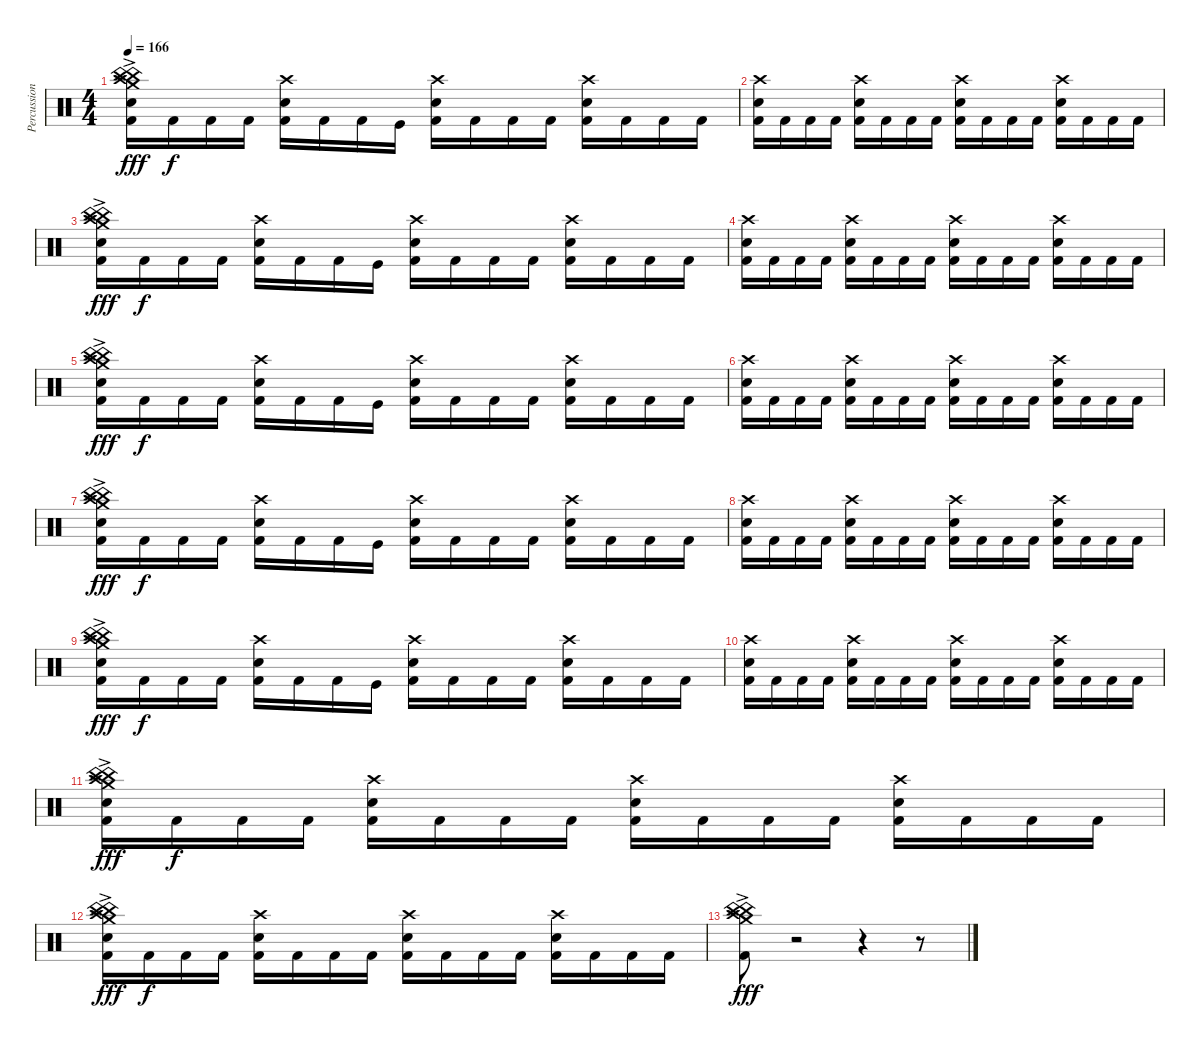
\track ("Percussion" "Percussion") {instrument percussion}
\staff {score}
\articulation defaults
\ts (4 4)
\tempo 166
\clef neutral
\ks c
("Crash high (hit)" "China (hit)"{ac} "Electric Snare (hit)" "China (hit)"{ac} "Crash medium (hit)" "Kick (hit) 2").16{dy fff} "Kick (hit) 2".16{dy f} "Kick (hit) 2".16 "Kick (hit) 2".16 ("Crash high (hit)" "Electric Snare (hit)" "Kick (hit) 2").16 "Kick (hit) 2".16 "Kick (hit) 2".16 "Kick (hit)".16 ("Crash high (hit)" "Electric Snare (hit)" "Kick (hit) 2").16 "Kick (hit) 2".16 "Kick (hit) 2".16 "Kick (hit) 2".16 ("Crash high (hit)" "Electric Snare (hit)" "Kick (hit) 2").16 "Kick (hit) 2".16 "Kick (hit) 2".16 "Kick (hit) 2".16 |
("Crash high (hit)" "Electric Snare (hit)" "Kick (hit) 2").16 "Kick (hit) 2".16 "Kick (hit) 2".16 "Kick (hit) 2".16 ("Crash high (hit)" "Electric Snare (hit)" "Kick (hit) 2").16 "Kick (hit) 2".16 "Kick (hit) 2".16 "Kick (hit) 2".16 ("Crash high (hit)" "Electric Snare (hit)" "Kick (hit) 2").16 "Kick (hit) 2".16 "Kick (hit) 2".16 "Kick (hit) 2".16 ("Crash high (hit)" "Electric Snare (hit)" "Kick (hit) 2").16 "Kick (hit) 2".16 "Kick (hit) 2".16 "Kick (hit) 2".16 |
("Crash high (hit)" "China (hit)"{ac} "Electric Snare (hit)" "China (hit)"{ac} "Crash medium (hit)" "Kick (hit) 2").16{dy fff} "Kick (hit) 2".16{dy f} "Kick (hit) 2".16 "Kick (hit) 2".16 ("Crash high (hit)" "Electric Snare (hit)" "Kick (hit) 2").16 "Kick (hit) 2".16 "Kick (hit) 2".16 "Kick (hit)".16 ("Crash high (hit)" "Electric Snare (hit)" "Kick (hit) 2").16 "Kick (hit) 2".16 "Kick (hit) 2".16 "Kick (hit) 2".16 ("Crash high (hit)" "Electric Snare (hit)" "Kick (hit) 2").16 "Kick (hit) 2".16 "Kick (hit) 2".16 "Kick (hit) 2".16 |
("Crash high (hit)" "Electric Snare (hit)" "Kick (hit) 2").16 "Kick (hit) 2".16 "Kick (hit) 2".16 "Kick (hit) 2".16 ("Crash high (hit)" "Electric Snare (hit)" "Kick (hit) 2").16 "Kick (hit) 2".16 "Kick (hit) 2".16 "Kick (hit) 2".16 ("Crash high (hit)" "Electric Snare (hit)" "Kick (hit) 2").16 "Kick (hit) 2".16 "Kick (hit) 2".16 "Kick (hit) 2".16 ("Crash high (hit)" "Electric Snare (hit)" "Kick (hit) 2").16 "Kick (hit) 2".16 "Kick (hit) 2".16 "Kick (hit) 2".16 |
("Crash high (hit)" "China (hit)"{ac} "Electric Snare (hit)" "China (hit)"{ac} "Crash medium (hit)" "Kick (hit) 2").16{dy fff} "Kick (hit) 2".16{dy f} "Kick (hit) 2".16 "Kick (hit) 2".16 ("Crash high (hit)" "Electric Snare (hit)" "Kick (hit) 2").16 "Kick (hit) 2".16 "Kick (hit) 2".16 "Kick (hit)".16 ("Crash high (hit)" "Electric Snare (hit)" "Kick (hit) 2").16 "Kick (hit) 2".16 "Kick (hit) 2".16 "Kick (hit) 2".16 ("Crash high (hit)" "Electric Snare (hit)" "Kick (hit) 2").16 "Kick (hit) 2".16 "Kick (hit) 2".16 "Kick (hit) 2".16 |
("Crash high (hit)" "Electric Snare (hit)" "Kick (hit) 2").16 "Kick (hit) 2".16 "Kick (hit) 2".16 "Kick (hit) 2".16 ("Crash high (hit)" "Electric Snare (hit)" "Kick (hit) 2").16 "Kick (hit) 2".16 "Kick (hit) 2".16 "Kick (hit) 2".16 ("Crash high (hit)" "Electric Snare (hit)" "Kick (hit) 2").16 "Kick (hit) 2".16 "Kick (hit) 2".16 "Kick (hit) 2".16 ("Crash high (hit)" "Electric Snare (hit)" "Kick (hit) 2").16 "Kick (hit) 2".16 "Kick (hit) 2".16 "Kick (hit) 2".16 |
("Crash high (hit)" "China (hit)"{ac} "Electric Snare (hit)" "China (hit)"{ac} "Crash medium (hit)" "Kick (hit) 2").16{dy fff} "Kick (hit) 2".16{dy f} "Kick (hit) 2".16 "Kick (hit) 2".16 ("Crash high (hit)" "Electric Snare (hit)" "Kick (hit) 2").16 "Kick (hit) 2".16 "Kick (hit) 2".16 "Kick (hit)".16 ("Crash high (hit)" "Electric Snare (hit)" "Kick (hit) 2").16 "Kick (hit) 2".16 "Kick (hit) 2".16 "Kick (hit) 2".16 ("Crash high (hit)" "Electric Snare (hit)" "Kick (hit) 2").16 "Kick (hit) 2".16 "Kick (hit) 2".16 "Kick (hit) 2".16 |
("Crash high (hit)" "Electric Snare (hit)" "Kick (hit) 2").16 "Kick (hit) 2".16 "Kick (hit) 2".16 "Kick (hit) 2".16 ("Crash high (hit)" "Electric Snare (hit)" "Kick (hit) 2").16 "Kick (hit) 2".16 "Kick (hit) 2".16 "Kick (hit) 2".16 ("Crash high (hit)" "Electric Snare (hit)" "Kick (hit) 2").16 "Kick (hit) 2".16 "Kick (hit) 2".16 "Kick (hit) 2".16 ("Crash high (hit)" "Electric Snare (hit)" "Kick (hit) 2").16 "Kick (hit) 2".16 "Kick (hit) 2".16 "Kick (hit) 2".16 |
("Crash high (hit)" "China (hit)"{ac} "Electric Snare (hit)" "China (hit)"{ac} "Crash medium (hit)" "Kick (hit) 2").16{dy fff} "Kick (hit) 2".16{dy f} "Kick (hit) 2".16 "Kick (hit) 2".16 ("Crash high (hit)" "Electric Snare (hit)" "Kick (hit) 2").16 "Kick (hit) 2".16 "Kick (hit) 2".16 "Kick (hit)".16 ("Crash high (hit)" "Electric Snare (hit)" "Kick (hit) 2").16 "Kick (hit) 2".16 "Kick (hit) 2".16 "Kick (hit) 2".16 ("Crash high (hit)" "Electric Snare (hit)" "Kick (hit) 2").16 "Kick (hit) 2".16 "Kick (hit) 2".16 "Kick (hit) 2".16 |
("Crash high (hit)" "Electric Snare (hit)" "Kick (hit) 2").16 "Kick (hit) 2".16 "Kick (hit) 2".16 "Kick (hit) 2".16 ("Crash high (hit)" "Electric Snare (hit)" "Kick (hit) 2").16 "Kick (hit) 2".16 "Kick (hit) 2".16 "Kick (hit) 2".16 ("Crash high (hit)" "Electric Snare (hit)" "Kick (hit) 2").16 "Kick (hit) 2".16 "Kick (hit) 2".16 "Kick (hit) 2".16 ("Crash high (hit)" "Electric Snare (hit)" "Kick (hit) 2").16 "Kick (hit) 2".16 "Kick (hit) 2".16 "Kick (hit) 2".16 |
("Crash high (hit)" "China (hit)"{ac} "Electric Snare (hit)" "China (hit)"{ac} "Crash medium (hit)" "Kick (hit) 2").16{dy fff} "Kick (hit) 2".16{dy f} "Kick (hit) 2".16 "Kick (hit) 2".16 ("Crash high (hit)" "Electric Snare (hit)" "Kick (hit) 2").16 "Kick (hit) 2".16 "Kick (hit) 2".16 "Kick (hit) 2".16 ("Crash high (hit)" "Electric Snare (hit)" "Kick (hit) 2").16 "Kick (hit) 2".16 "Kick (hit) 2".16 "Kick (hit) 2".16 ("Crash high (hit)" "Electric Snare (hit)" "Kick (hit) 2").16 "Kick (hit) 2".16 "Kick (hit) 2".16 "Kick (hit) 2".16 |
("Crash high (hit)" "China (hit)"{ac} "Electric Snare (hit)" "China (hit)"{ac} "Crash medium (hit)" "Kick (hit) 2").16{dy fff} "Kick (hit) 2".16{dy f} "Kick (hit) 2".16 "Kick (hit) 2".16 ("Crash high (hit)" "Electric Snare (hit)" "Kick (hit) 2").16 "Kick (hit) 2".16 "Kick (hit) 2".16 "Kick (hit) 2".16 ("Crash high (hit)" "Electric Snare (hit)" "Kick (hit) 2").16 "Kick (hit) 2".16 "Kick (hit) 2".16 "Kick (hit) 2".16 ("Crash high (hit)" "Electric Snare (hit)" "Kick (hit) 2").16 "Kick (hit) 2".16 "Kick (hit) 2".16 "Kick (hit) 2".16 |
("Crash high (hit)" "China (hit)"{ac} "China (hit)"{ac} "Crash medium (hit)" "Kick (hit) 2").8{dy fff} r.2 r.4 r.8
